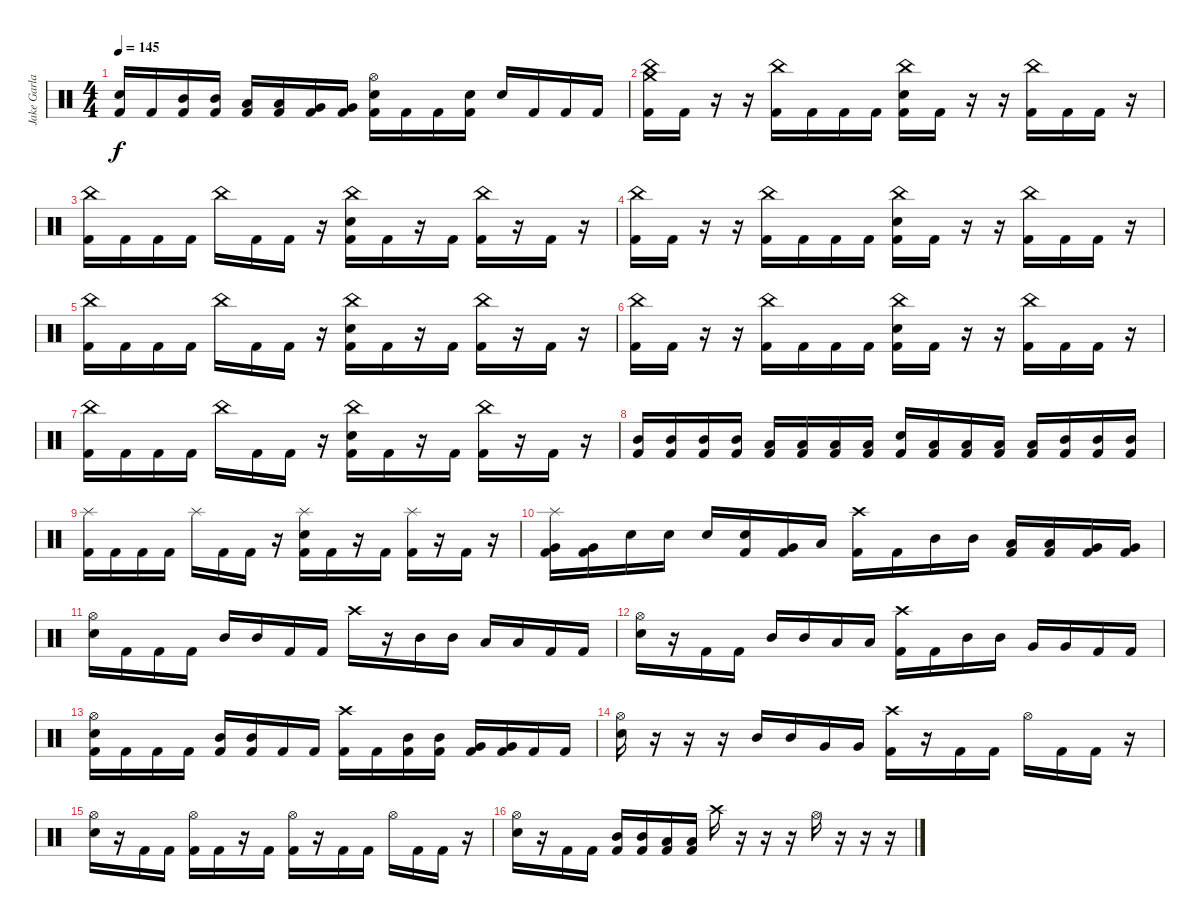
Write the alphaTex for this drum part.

\track ("Jake Garland" "Jake Garla") {instrument percussion}
\staff {score}
\articulation defaults
\ts (4 4)
\tempo 145
\clef neutral
\ks c
("Electric Snare (hit)" "Kick (hit) 2").16{dy f} "Kick (hit) 2".16 ("Mid Tom (hit)" "Kick (hit) 2").16 ("Mid Tom (hit)" "Kick (hit) 2").16 ("Low Tom (hit)" "Kick (hit) 2").16 ("Low Tom (hit)" "Kick (hit) 2").16 ("Very Low Tom (hit)" "Kick (hit) 2").16 ("Very Low Tom (hit)" "Kick (hit) 2").16 ("Hi-Hat (open)" "Electric Snare (hit)" "Kick (hit) 2").16 "Kick (hit) 2".16 "Kick (hit) 2".16 ("Electric Snare (hit)" "Kick (hit) 2").16 "Electric Snare (hit)".16 "Kick (hit) 2".16 "Kick (hit) 2".16 "Kick (hit) 2".16 |
("China (hit)" "Crash medium (hit)" "Kick (hit) 2").16 "Kick (hit) 2".16 r.16 r.16 ("China (hit)" "Kick (hit) 2").16 "Kick (hit) 2".16 "Kick (hit) 2".16 "Kick (hit) 2".16 ("China (hit)" "Electric Snare (hit)" "Kick (hit) 2").16 "Kick (hit) 2".16 r.16 r.16 ("China (hit)" "Kick (hit) 2").16 "Kick (hit) 2".16 "Kick (hit) 2".16 r.16 |
("China (hit)" "Kick (hit) 2").16 "Kick (hit) 2".16 "Kick (hit) 2".16 "Kick (hit) 2".16 "China (hit)".16 "Kick (hit) 2".16 "Kick (hit) 2".16 r.16 ("China (hit)" "Electric Snare (hit)" "Kick (hit) 2").16 "Kick (hit) 2".16 r.16 "Kick (hit) 2".16 ("China (hit)" "Kick (hit) 2").16 r.16 "Kick (hit) 2".16 r.16 |
("China (hit)" "Kick (hit) 2").16 "Kick (hit) 2".16 r.16 r.16 ("China (hit)" "Kick (hit) 2").16 "Kick (hit) 2".16 "Kick (hit) 2".16 "Kick (hit) 2".16 ("China (hit)" "Electric Snare (hit)" "Kick (hit) 2").16 "Kick (hit) 2".16 r.16 r.16 ("China (hit)" "Kick (hit) 2").16 "Kick (hit) 2".16 "Kick (hit) 2".16 r.16 |
("China (hit)" "Kick (hit) 2").16 "Kick (hit) 2".16 "Kick (hit) 2".16 "Kick (hit) 2".16 "China (hit)".16 "Kick (hit) 2".16 "Kick (hit) 2".16 r.16 ("China (hit)" "Electric Snare (hit)" "Kick (hit) 2").16 "Kick (hit) 2".16 r.16 "Kick (hit) 2".16 ("China (hit)" "Kick (hit) 2").16 r.16 "Kick (hit) 2".16 r.16 |
("China (hit)" "Kick (hit) 2").16 "Kick (hit) 2".16 r.16 r.16 ("China (hit)" "Kick (hit) 2").16 "Kick (hit) 2".16 "Kick (hit) 2".16 "Kick (hit) 2".16 ("China (hit)" "Electric Snare (hit)" "Kick (hit) 2").16 "Kick (hit) 2".16 r.16 r.16 ("China (hit)" "Kick (hit) 2").16 "Kick (hit) 2".16 "Kick (hit) 2".16 r.16 |
("China (hit)" "Kick (hit) 2").16 "Kick (hit) 2".16 "Kick (hit) 2".16 "Kick (hit) 2".16 "China (hit)".16 "Kick (hit) 2".16 "Kick (hit) 2".16 r.16 ("China (hit)" "Electric Snare (hit)" "Kick (hit) 2").16 "Kick (hit) 2".16 r.16 "Kick (hit) 2".16 ("China (hit)" "Kick (hit) 2").16 r.16 "Kick (hit) 2".16 r.16 |
("Mid Tom (hit)" "Kick (hit) 2").16 ("Mid Tom (hit)" "Kick (hit) 2").16 ("Mid Tom (hit)" "Kick (hit) 2").16 ("Mid Tom (hit)" "Kick (hit) 2").16 ("Low Tom (hit)" "Kick (hit) 2").16 ("Low Tom (hit)" "Kick (hit) 2").16 ("Low Tom (hit)" "Kick (hit) 2").16 ("Low Tom (hit)" "Kick (hit) 2").16 ("Electric Snare (hit)" "Kick (hit) 2").16 ("Low Tom (hit)" "Kick (hit) 2").16 ("Low Tom (hit)" "Kick (hit) 2").16 ("Low Tom (hit)" "Kick (hit) 2").16 ("Low Tom (hit)" "Kick (hit) 2").16 ("Mid Tom (hit)" "Kick (hit) 2").16 ("Mid Tom (hit)" "Kick (hit) 2").16 ("Mid Tom (hit)" "Kick (hit) 2").16 |
("Splash (hit)" "Kick (hit) 2").16 "Kick (hit) 2".16 "Kick (hit) 2".16 "Kick (hit) 2".16 "Splash (hit)".16 "Kick (hit) 2".16 "Kick (hit) 2".16 r.16 ("Splash (hit)" "Electric Snare (hit)" "Kick (hit) 2").16 "Kick (hit) 2".16 r.16 "Kick (hit) 2".16 ("Splash (hit)" "Kick (hit) 2").16 r.16 "Kick (hit) 2".16 r.16 |
("Splash (hit)" "Very Low Tom (hit)" "Kick (hit) 2").16 ("Very Low Tom (hit)" "Kick (hit) 2").16 "Electric Snare (hit)".16 "Electric Snare (hit)".16 "Electric Snare (hit)".16 ("Electric Snare (hit)" "Kick (hit) 2").16 ("Very Low Tom (hit)" "Kick (hit) 2").16 "Low Floor Tom (hit)".16 ("Crash high (hit)" "Kick (hit) 2").16 "Kick (hit) 2".16 "Mid Tom (hit)".16 "Mid Tom (hit)".16 ("Low Tom (hit)" "Kick (hit) 2").16 ("Low Tom (hit)" "Kick (hit) 2").16 ("Very Low Tom (hit)" "Kick (hit) 2").16 ("Very Low Tom (hit)" "Kick (hit) 2").16 |
("Hi-Hat (open)" "Electric Snare (hit)").16 "Kick (hit) 2".16 "Kick (hit) 2".16 "Kick (hit) 2".16 "Mid Tom (hit)".16 "Mid Tom (hit)".16 "Kick (hit) 2".16 "Kick (hit) 2".16 "Crash high (hit)".16 r.16 "Mid Tom (hit)".16 "Mid Tom (hit)".16 "Low Tom (hit)".16 "Low Tom (hit)".16 "Kick (hit) 2".16 "Kick (hit) 2".16 |
("Hi-Hat (open)" "Electric Snare (hit)").16 r.16 "Kick (hit) 2".16 "Kick (hit) 2".16 "Mid Tom (hit)".16 "Mid Tom (hit)".16 "Low Tom (hit)".16 "Low Tom (hit)".16 ("Crash high (hit)" "Kick (hit) 2").16 "Kick (hit) 2".16 "Mid Tom (hit)".16 "Mid Tom (hit)".16 "Very Low Tom (hit)".16 "Very Low Tom (hit)".16 "Kick (hit) 2".16 "Kick (hit) 2".16 |
("Hi-Hat (open)" "Electric Snare (hit)" "Kick (hit) 2").16 "Kick (hit) 2".16 "Kick (hit) 2".16 "Kick (hit) 2".16 ("Mid Tom (hit)" "Kick (hit) 2").16 ("Mid Tom (hit)" "Kick (hit) 2").16 "Kick (hit) 2".16 "Kick (hit) 2".16 ("Crash high (hit)" "Kick (hit) 2").16 "Kick (hit) 2".16 ("Mid Tom (hit)" "Kick (hit) 2").16 ("Mid Tom (hit)" "Kick (hit) 2").16 ("Very Low Tom (hit)" "Kick (hit) 2").16 ("Very Low Tom (hit)" "Kick (hit) 2").16 "Kick (hit) 2".16 "Kick (hit) 2".16 |
("Hi-Hat (open)" "Electric Snare (hit)").16 r.16 r.16 r.16 "Mid Tom (hit)".16 "Mid Tom (hit)".16 "Very Low Tom (hit)".16 "Very Low Tom (hit)".16 ("Crash high (hit)" "Kick (hit) 2").16 r.16 "Kick (hit) 2".16 "Kick (hit) 2".16 "Hi-Hat (open)".16 "Kick (hit) 2".16 "Kick (hit) 2".16 r.16 |
("Hi-Hat (open)" "Electric Snare (hit)").16 r.16 "Kick (hit) 2".16 "Kick (hit) 2".16 ("Hi-Hat (open)" "Kick (hit) 2").16 "Kick (hit) 2".16 r.16 "Kick (hit) 2".16 ("Hi-Hat (open)" "Kick (hit) 2").16 r.16 "Kick (hit) 2".16 "Kick (hit) 2".16 "Hi-Hat (open)".16 "Kick (hit) 2".16 "Kick (hit) 2".16 r.16 |
("Hi-Hat (open)" "Electric Snare (hit)").16 r.16 "Kick (hit) 2".16 "Kick (hit) 2".16 ("Mid Tom (hit)" "Kick (hit) 2").16 ("Mid Tom (hit)" "Kick (hit) 2").16 ("Low Tom (hit)" "Kick (hit) 2").16 ("Low Tom (hit)" "Kick (hit) 2").16 "Crash high (hit)".16 r.16 r.16 r.16 "Hi-Hat (open)".16 r.16 r.16 r.16
